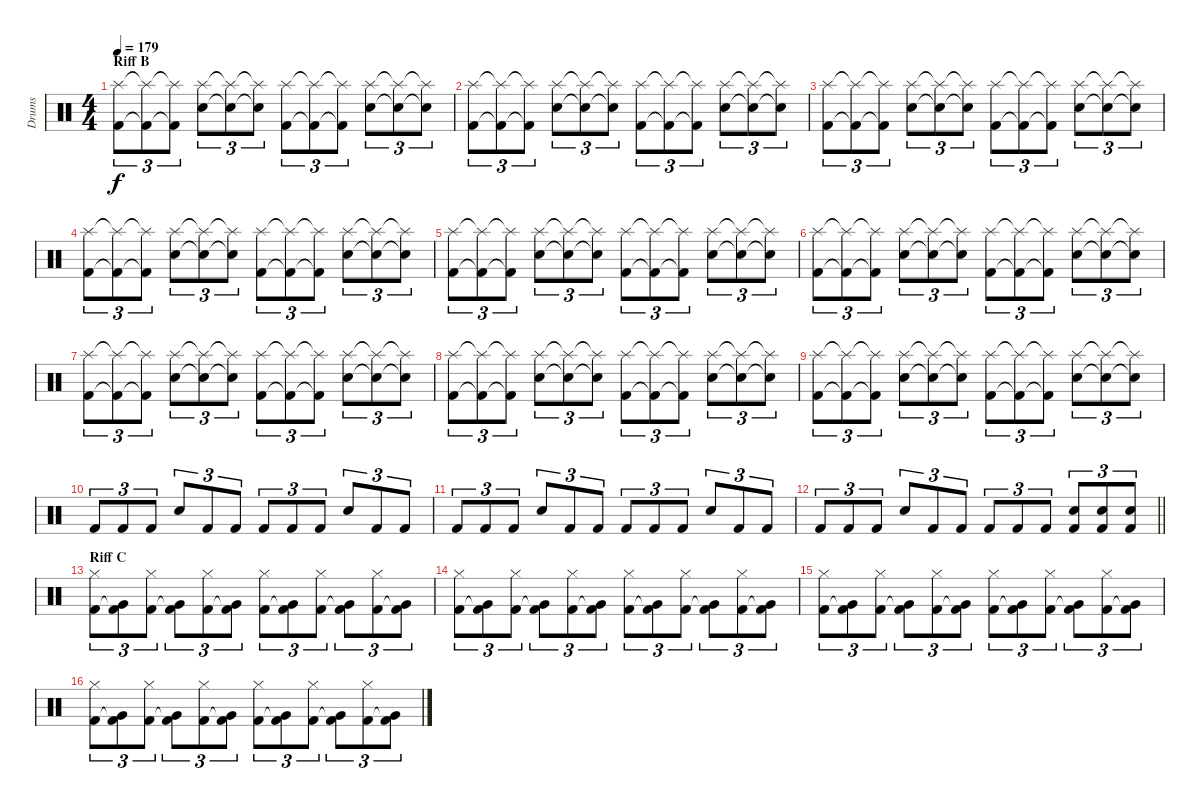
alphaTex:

\track ("Drums" "Drums") {instrument percussion}
\staff {score}
\articulation defaults
\ts (4 4)
\section ("" "Riff B")
\tempo 179
\clef neutral
\ks c
("Splash (hit)" "Kick (hit) 2").8{tu (3 2) dy f} ("Splash (hit)"{t} "Kick (hit) 2"{t}).8{tu (3 2)} ("Splash (hit)"{t} "Kick (hit) 2"{t}).8{tu (3 2)} ("Splash (hit)" "Electric Snare (hit)").8{tu (3 2)} ("Splash (hit)"{t} "Electric Snare (hit)"{t}).8{tu (3 2)} ("Splash (hit)"{t} "Electric Snare (hit)"{t}).8{tu (3 2)} ("Splash (hit)" "Kick (hit) 2").8{tu (3 2)} ("Splash (hit)"{t} "Kick (hit) 2"{t}).8{tu (3 2)} ("Splash (hit)"{t} "Kick (hit) 2"{t}).8{tu (3 2)} ("Splash (hit)" "Electric Snare (hit)").8{tu (3 2)} ("Splash (hit)"{t} "Electric Snare (hit)"{t}).8{tu (3 2)} ("Splash (hit)"{t} "Electric Snare (hit)"{t}).8{tu (3 2)} |
("Splash (hit)" "Kick (hit) 2").8{tu (3 2)} ("Splash (hit)"{t} "Kick (hit) 2"{t}).8{tu (3 2)} ("Splash (hit)"{t} "Kick (hit) 2"{t}).8{tu (3 2)} ("Splash (hit)" "Electric Snare (hit)").8{tu (3 2)} ("Splash (hit)"{t} "Electric Snare (hit)"{t}).8{tu (3 2)} ("Splash (hit)"{t} "Electric Snare (hit)"{t}).8{tu (3 2)} ("Splash (hit)" "Kick (hit) 2").8{tu (3 2)} ("Splash (hit)"{t} "Kick (hit) 2"{t}).8{tu (3 2)} ("Splash (hit)"{t} "Kick (hit) 2"{t}).8{tu (3 2)} ("Splash (hit)" "Electric Snare (hit)").8{tu (3 2)} ("Splash (hit)"{t} "Electric Snare (hit)"{t}).8{tu (3 2)} ("Splash (hit)"{t} "Electric Snare (hit)"{t}).8{tu (3 2)} |
("Splash (hit)" "Kick (hit) 2").8{tu (3 2)} ("Splash (hit)"{t} "Kick (hit) 2"{t}).8{tu (3 2)} ("Splash (hit)"{t} "Kick (hit) 2"{t}).8{tu (3 2)} ("Splash (hit)" "Electric Snare (hit)").8{tu (3 2)} ("Splash (hit)"{t} "Electric Snare (hit)"{t}).8{tu (3 2)} ("Splash (hit)"{t} "Electric Snare (hit)"{t}).8{tu (3 2)} ("Splash (hit)" "Kick (hit) 2").8{tu (3 2)} ("Splash (hit)"{t} "Kick (hit) 2"{t}).8{tu (3 2)} ("Splash (hit)"{t} "Kick (hit) 2"{t}).8{tu (3 2)} ("Splash (hit)" "Electric Snare (hit)").8{tu (3 2)} ("Splash (hit)"{t} "Electric Snare (hit)"{t}).8{tu (3 2)} ("Splash (hit)"{t} "Electric Snare (hit)"{t}).8{tu (3 2)} |
("Splash (hit)" "Kick (hit) 2").8{tu (3 2)} ("Splash (hit)"{t} "Kick (hit) 2"{t}).8{tu (3 2)} ("Splash (hit)"{t} "Kick (hit) 2"{t}).8{tu (3 2)} ("Splash (hit)" "Electric Snare (hit)").8{tu (3 2)} ("Splash (hit)"{t} "Electric Snare (hit)"{t}).8{tu (3 2)} ("Splash (hit)"{t} "Electric Snare (hit)"{t}).8{tu (3 2)} ("Splash (hit)" "Kick (hit) 2").8{tu (3 2)} ("Splash (hit)"{t} "Kick (hit) 2"{t}).8{tu (3 2)} ("Splash (hit)"{t} "Kick (hit) 2"{t}).8{tu (3 2)} ("Splash (hit)" "Electric Snare (hit)").8{tu (3 2)} ("Splash (hit)"{t} "Electric Snare (hit)"{t}).8{tu (3 2)} ("Splash (hit)"{t} "Electric Snare (hit)"{t}).8{tu (3 2)} |
("Splash (hit)" "Kick (hit) 2").8{tu (3 2)} ("Splash (hit)"{t} "Kick (hit) 2"{t}).8{tu (3 2)} ("Splash (hit)"{t} "Kick (hit) 2"{t}).8{tu (3 2)} ("Splash (hit)" "Electric Snare (hit)").8{tu (3 2)} ("Splash (hit)"{t} "Electric Snare (hit)"{t}).8{tu (3 2)} ("Splash (hit)"{t} "Electric Snare (hit)"{t}).8{tu (3 2)} ("Splash (hit)" "Kick (hit) 2").8{tu (3 2)} ("Splash (hit)"{t} "Kick (hit) 2"{t}).8{tu (3 2)} ("Splash (hit)"{t} "Kick (hit) 2"{t}).8{tu (3 2)} ("Splash (hit)" "Electric Snare (hit)").8{tu (3 2)} ("Splash (hit)"{t} "Electric Snare (hit)"{t}).8{tu (3 2)} ("Splash (hit)"{t} "Electric Snare (hit)"{t}).8{tu (3 2)} |
("Splash (hit)" "Kick (hit) 2").8{tu (3 2)} ("Splash (hit)"{t} "Kick (hit) 2"{t}).8{tu (3 2)} ("Splash (hit)"{t} "Kick (hit) 2"{t}).8{tu (3 2)} ("Splash (hit)" "Electric Snare (hit)").8{tu (3 2)} ("Splash (hit)"{t} "Electric Snare (hit)"{t}).8{tu (3 2)} ("Splash (hit)"{t} "Electric Snare (hit)"{t}).8{tu (3 2)} ("Splash (hit)" "Kick (hit) 2").8{tu (3 2)} ("Splash (hit)"{t} "Kick (hit) 2"{t}).8{tu (3 2)} ("Splash (hit)"{t} "Kick (hit) 2"{t}).8{tu (3 2)} ("Splash (hit)" "Electric Snare (hit)").8{tu (3 2)} ("Splash (hit)"{t} "Electric Snare (hit)"{t}).8{tu (3 2)} ("Splash (hit)"{t} "Electric Snare (hit)"{t}).8{tu (3 2)} |
("Splash (hit)" "Kick (hit) 2").8{tu (3 2)} ("Splash (hit)"{t} "Kick (hit) 2"{t}).8{tu (3 2)} ("Splash (hit)"{t} "Kick (hit) 2"{t}).8{tu (3 2)} ("Splash (hit)" "Electric Snare (hit)").8{tu (3 2)} ("Splash (hit)"{t} "Electric Snare (hit)"{t}).8{tu (3 2)} ("Splash (hit)"{t} "Electric Snare (hit)"{t}).8{tu (3 2)} ("Splash (hit)" "Kick (hit) 2").8{tu (3 2)} ("Splash (hit)"{t} "Kick (hit) 2"{t}).8{tu (3 2)} ("Splash (hit)"{t} "Kick (hit) 2"{t}).8{tu (3 2)} ("Splash (hit)" "Electric Snare (hit)").8{tu (3 2)} ("Splash (hit)"{t} "Electric Snare (hit)"{t}).8{tu (3 2)} ("Splash (hit)"{t} "Electric Snare (hit)"{t}).8{tu (3 2)} |
("Splash (hit)" "Kick (hit) 2").8{tu (3 2)} ("Splash (hit)"{t} "Kick (hit) 2"{t}).8{tu (3 2)} ("Splash (hit)"{t} "Kick (hit) 2"{t}).8{tu (3 2)} ("Splash (hit)" "Electric Snare (hit)").8{tu (3 2)} ("Splash (hit)"{t} "Electric Snare (hit)"{t}).8{tu (3 2)} ("Splash (hit)"{t} "Electric Snare (hit)"{t}).8{tu (3 2)} ("Splash (hit)" "Kick (hit) 2").8{tu (3 2)} ("Splash (hit)"{t} "Kick (hit) 2"{t}).8{tu (3 2)} ("Splash (hit)"{t} "Kick (hit) 2"{t}).8{tu (3 2)} ("Splash (hit)" "Electric Snare (hit)").8{tu (3 2)} ("Splash (hit)"{t} "Electric Snare (hit)"{t}).8{tu (3 2)} ("Splash (hit)"{t} "Electric Snare (hit)"{t}).8{tu (3 2)} |
("Splash (hit)" "Kick (hit) 2").8{tu (3 2)} ("Splash (hit)"{t} "Kick (hit) 2"{t}).8{tu (3 2)} ("Splash (hit)"{t} "Kick (hit) 2"{t}).8{tu (3 2)} ("Splash (hit)" "Electric Snare (hit)").8{tu (3 2)} ("Splash (hit)"{t} "Electric Snare (hit)"{t}).8{tu (3 2)} ("Splash (hit)"{t} "Electric Snare (hit)"{t}).8{tu (3 2)} ("Splash (hit)" "Kick (hit) 2").8{tu (3 2)} ("Splash (hit)"{t} "Kick (hit) 2"{t}).8{tu (3 2)} ("Splash (hit)"{t} "Kick (hit) 2"{t}).8{tu (3 2)} ("Splash (hit)" "Electric Snare (hit)").8{tu (3 2)} ("Splash (hit)"{t} "Electric Snare (hit)"{t}).8{tu (3 2)} ("Splash (hit)"{t} "Electric Snare (hit)"{t}).8{tu (3 2)} |
"Kick (hit) 2".8{tu (3 2)} "Kick (hit) 2".8{tu (3 2)} "Kick (hit) 2".8{tu (3 2)} "Electric Snare (hit)".8{tu (3 2)} "Kick (hit) 2".8{tu (3 2)} "Kick (hit) 2".8{tu (3 2)} "Kick (hit) 2".8{tu (3 2)} "Kick (hit) 2".8{tu (3 2)} "Kick (hit) 2".8{tu (3 2)} "Electric Snare (hit)".8{tu (3 2)} "Kick (hit) 2".8{tu (3 2)} "Kick (hit) 2".8{tu (3 2)} |
"Kick (hit) 2".8{tu (3 2)} "Kick (hit) 2".8{tu (3 2)} "Kick (hit) 2".8{tu (3 2)} "Electric Snare (hit)".8{tu (3 2)} "Kick (hit) 2".8{tu (3 2)} "Kick (hit) 2".8{tu (3 2)} "Kick (hit) 2".8{tu (3 2)} "Kick (hit) 2".8{tu (3 2)} "Kick (hit) 2".8{tu (3 2)} "Electric Snare (hit)".8{tu (3 2)} "Kick (hit) 2".8{tu (3 2)} "Kick (hit) 2".8{tu (3 2)} |
\barLineRight lightlight "Kick (hit) 2".8{tu (3 2)} "Kick (hit) 2".8{tu (3 2)} "Kick (hit) 2".8{tu (3 2)} "Electric Snare (hit)".8{tu (3 2)} "Kick (hit) 2".8{tu (3 2)} "Kick (hit) 2".8{tu (3 2)} "Kick (hit) 2".8{tu (3 2)} "Kick (hit) 2".8{tu (3 2)} "Kick (hit) 2".8{tu (3 2)}
("Electric Snare (hit)" "Kick (hit) 2").8{tu (3 2)} ("Electric Snare (hit)" "Kick (hit) 2").8{tu (3 2)} ("Electric Snare (hit)" "Kick (hit) 2").8{tu (3 2)} |
\section ("" "Riff C")
("Hi-Hat (closed)" "Kick (hit) 2").8{tu (3 2)} ("Very Low Tom (hit)" "Kick (hit) 2"{t}).8{tu (3 2)} ("Hi-Hat (closed)" "Kick (hit) 2").8{tu (3 2)} ("Very Low Tom (hit)" "Kick (hit) 2"{t}).8{tu (3 2)} ("Hi-Hat (closed)" "Kick (hit) 2").8{tu (3 2)} ("Very Low Tom (hit)" "Kick (hit) 2"{t}).8{tu (3 2)} ("Hi-Hat (closed)" "Kick (hit) 2").8{tu (3 2)} ("Very Low Tom (hit)" "Kick (hit) 2"{t}).8{tu (3 2)} ("Hi-Hat (closed)" "Kick (hit) 2").8{tu (3 2)} ("Very Low Tom (hit)" "Kick (hit) 2"{t}).8{tu (3 2)} ("Hi-Hat (closed)" "Kick (hit) 2").8{tu (3 2)} ("Very Low Tom (hit)" "Kick (hit) 2"{t}).8{tu (3 2)} |
("Hi-Hat (closed)" "Kick (hit) 2").8{tu (3 2)} ("Very Low Tom (hit)" "Kick (hit) 2"{t}).8{tu (3 2)} ("Hi-Hat (closed)" "Kick (hit) 2").8{tu (3 2)} ("Very Low Tom (hit)" "Kick (hit) 2"{t}).8{tu (3 2)} ("Hi-Hat (closed)" "Kick (hit) 2").8{tu (3 2)} ("Very Low Tom (hit)" "Kick (hit) 2"{t}).8{tu (3 2)} ("Hi-Hat (closed)" "Kick (hit) 2").8{tu (3 2)} ("Very Low Tom (hit)" "Kick (hit) 2"{t}).8{tu (3 2)} ("Hi-Hat (closed)" "Kick (hit) 2").8{tu (3 2)} ("Very Low Tom (hit)" "Kick (hit) 2"{t}).8{tu (3 2)} ("Hi-Hat (closed)" "Kick (hit) 2").8{tu (3 2)} ("Very Low Tom (hit)" "Kick (hit) 2"{t}).8{tu (3 2)} |
("Hi-Hat (closed)" "Kick (hit) 2").8{tu (3 2)} ("Very Low Tom (hit)" "Kick (hit) 2"{t}).8{tu (3 2)} ("Hi-Hat (closed)" "Kick (hit) 2").8{tu (3 2)} ("Very Low Tom (hit)" "Kick (hit) 2"{t}).8{tu (3 2)} ("Hi-Hat (closed)" "Kick (hit) 2").8{tu (3 2)} ("Very Low Tom (hit)" "Kick (hit) 2"{t}).8{tu (3 2)} ("Hi-Hat (closed)" "Kick (hit) 2").8{tu (3 2)} ("Very Low Tom (hit)" "Kick (hit) 2"{t}).8{tu (3 2)} ("Hi-Hat (closed)" "Kick (hit) 2").8{tu (3 2)} ("Very Low Tom (hit)" "Kick (hit) 2"{t}).8{tu (3 2)} ("Hi-Hat (closed)" "Kick (hit) 2").8{tu (3 2)} ("Very Low Tom (hit)" "Kick (hit) 2"{t}).8{tu (3 2)} |
("Hi-Hat (closed)" "Kick (hit) 2").8{tu (3 2)} ("Very Low Tom (hit)" "Kick (hit) 2"{t}).8{tu (3 2)} ("Hi-Hat (closed)" "Kick (hit) 2").8{tu (3 2)} ("Very Low Tom (hit)" "Kick (hit) 2"{t}).8{tu (3 2)} ("Hi-Hat (closed)" "Kick (hit) 2").8{tu (3 2)} ("Very Low Tom (hit)" "Kick (hit) 2"{t}).8{tu (3 2)} ("Hi-Hat (closed)" "Kick (hit) 2").8{tu (3 2)} ("Very Low Tom (hit)" "Kick (hit) 2"{t}).8{tu (3 2)} ("Hi-Hat (closed)" "Kick (hit) 2").8{tu (3 2)} ("Very Low Tom (hit)" "Kick (hit) 2"{t}).8{tu (3 2)} ("Hi-Hat (closed)" "Kick (hit) 2").8{tu (3 2)} ("Very Low Tom (hit)" "Kick (hit) 2"{t}).8{tu (3 2)}
